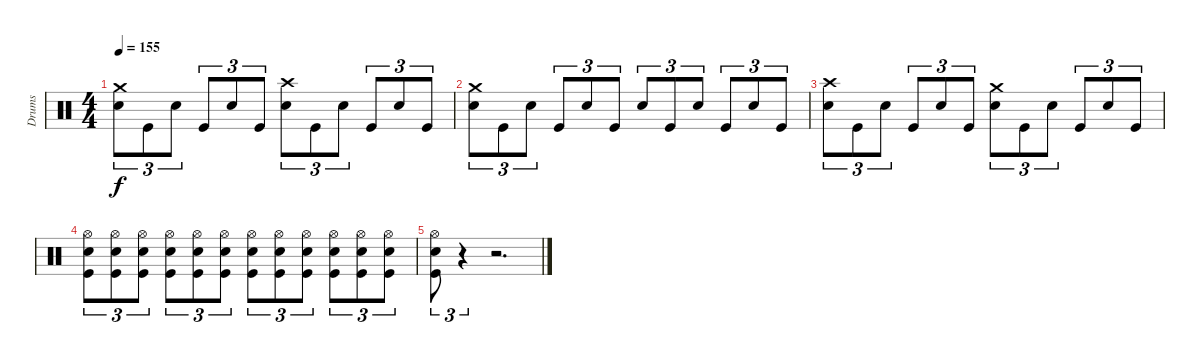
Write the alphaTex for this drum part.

\track ("Drums" "Drums") {instrument percussion}
\staff {score}
\articulation defaults
\ts (4 4)
\tempo 155
\clef neutral
\ks c
("Crash medium (hit)" "Electric Snare (hit)").8{tu (3 2) dy f} "Kick (hit)".8{tu (3 2)} "Electric Snare (hit)".8{tu (3 2)} "Kick (hit)".8{tu (3 2)} "Electric Snare (hit)".8{tu (3 2)} "Kick (hit)".8{tu (3 2)} ("Crash high (hit)" "Electric Snare (hit)").8{tu (3 2)} "Kick (hit)".8{tu (3 2)} "Electric Snare (hit)".8{tu (3 2)} "Kick (hit)".8{tu (3 2)} "Electric Snare (hit)".8{tu (3 2)} "Kick (hit)".8{tu (3 2)} |
("Crash medium (hit)" "Electric Snare (hit)").8{tu (3 2)} "Kick (hit)".8{tu (3 2)} "Electric Snare (hit)".8{tu (3 2)} "Kick (hit)".8{tu (3 2)} "Electric Snare (hit)".8{tu (3 2)} "Kick (hit)".8{tu (3 2)} "Electric Snare (hit)".8{tu (3 2)} "Kick (hit)".8{tu (3 2)} "Electric Snare (hit)".8{tu (3 2)} "Kick (hit)".8{tu (3 2)} "Electric Snare (hit)".8{tu (3 2)} "Kick (hit)".8{tu (3 2)} |
("Crash high (hit)" "Electric Snare (hit)").8{tu (3 2)} "Kick (hit)".8{tu (3 2)} "Electric Snare (hit)".8{tu (3 2)} "Kick (hit)".8{tu (3 2)} "Electric Snare (hit)".8{tu (3 2)} "Kick (hit)".8{tu (3 2)} ("Crash medium (hit)" "Electric Snare (hit)").8{tu (3 2)} "Kick (hit)".8{tu (3 2)} "Electric Snare (hit)".8{tu (3 2)} "Kick (hit)".8{tu (3 2)} "Electric Snare (hit)".8{tu (3 2)} "Kick (hit)".8{tu (3 2)} |
("Hi-Hat (open)" "Electric Snare (hit)" "Kick (hit)").8{tu (3 2)} ("Hi-Hat (open)" "Electric Snare (hit)" "Kick (hit)").8{tu (3 2)} ("Hi-Hat (open)" "Electric Snare (hit)" "Kick (hit)").8{tu (3 2)} ("Hi-Hat (open)" "Electric Snare (hit)" "Kick (hit)").8{tu (3 2)} ("Hi-Hat (open)" "Electric Snare (hit)" "Kick (hit)").8{tu (3 2)} ("Hi-Hat (open)" "Electric Snare (hit)" "Kick (hit)").8{tu (3 2)} ("Hi-Hat (open)" "Electric Snare (hit)" "Kick (hit)").8{tu (3 2)} ("Hi-Hat (open)" "Electric Snare (hit)" "Kick (hit)").8{tu (3 2)} ("Hi-Hat (open)" "Electric Snare (hit)" "Kick (hit)").8{tu (3 2)} ("Hi-Hat (open)" "Electric Snare (hit)" "Kick (hit)").8{tu (3 2)} ("Hi-Hat (open)" "Electric Snare (hit)" "Kick (hit)").8{tu (3 2)} ("Hi-Hat (open)" "Electric Snare (hit)" "Kick (hit)").8{tu (3 2)} |
("Hi-Hat (open)" "Electric Snare (hit)" "Kick (hit)").8{tu (3 2)} r.4{tu (3 2)} r.2{d}
